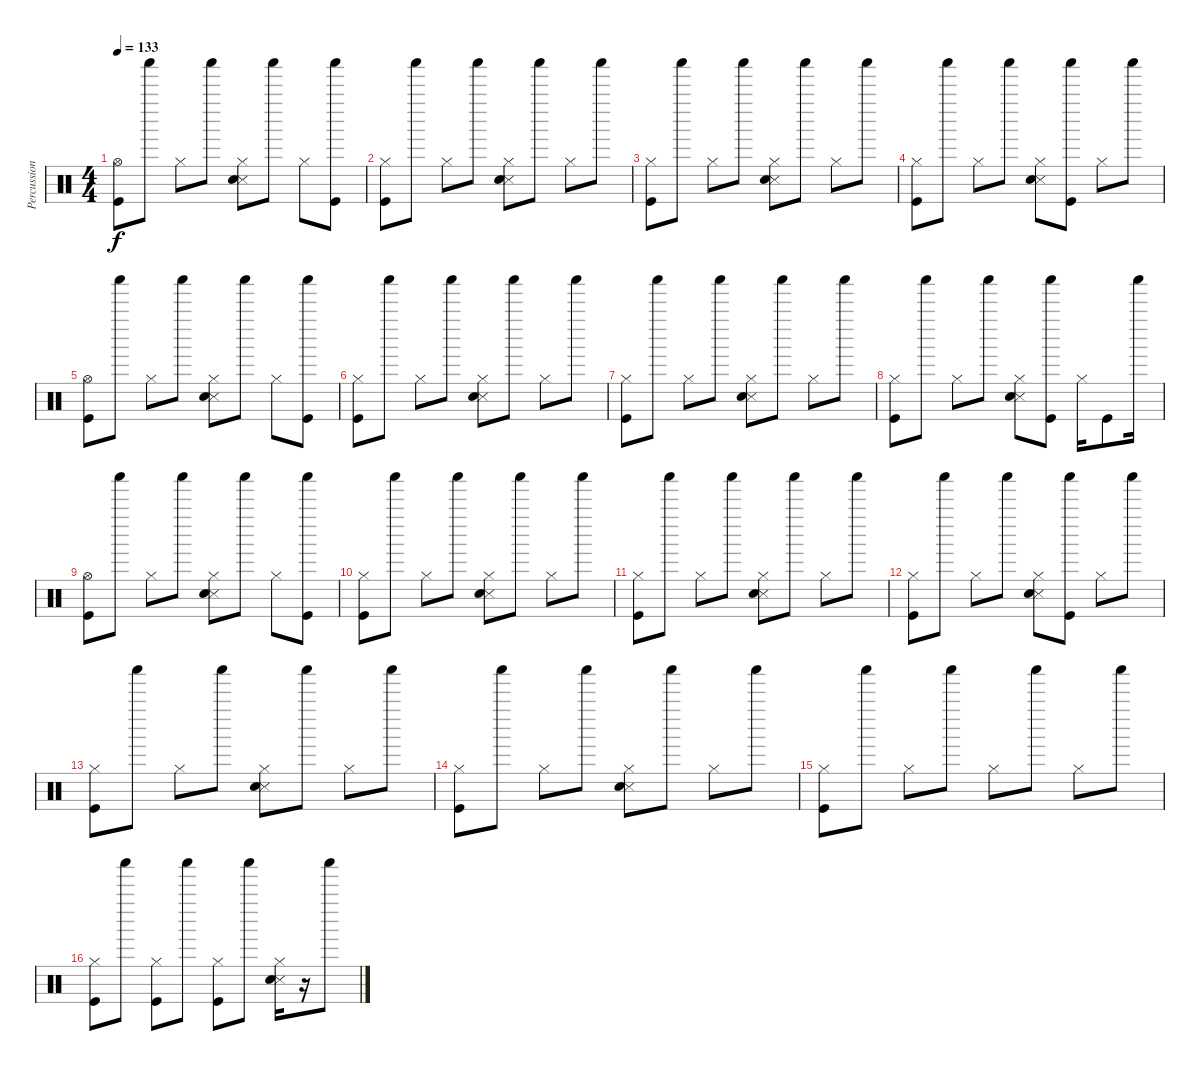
\track ("Percussion" "Percussion") {instrument percussion}
\staff {score}
\articulation defaults
\ts (4 4)
\tempo 133
\clef neutral
\ks c
("Hi-Hat (open)" "Kick (hit)").8{dy f} "Shaker (hit)".8 "Hi-Hat (closed)".8 "Shaker (hit)".8 ("Hi-Hat (closed)" "Snare (side stick) 3" "Electric Snare (hit)").8 "Shaker (hit)".8 "Hi-Hat (closed)".8 ("Shaker (hit)" "Kick (hit)").8 |
("Hi-Hat (closed)" "Kick (hit)").8 "Shaker (hit)".8 "Hi-Hat (closed)".8 "Shaker (hit)".8 ("Hi-Hat (closed)" "Snare (side stick) 3" "Electric Snare (hit)").8 "Shaker (hit)".8 "Hi-Hat (closed)".8 "Shaker (hit)".8 |
("Hi-Hat (closed)" "Kick (hit)").8 "Shaker (hit)".8 "Hi-Hat (closed)".8 "Shaker (hit)".8 ("Hi-Hat (closed)" "Snare (side stick) 3" "Electric Snare (hit)").8 "Shaker (hit)".8 "Hi-Hat (closed)".8 "Shaker (hit)".8 |
("Hi-Hat (closed)" "Kick (hit)").8 "Shaker (hit)".8 "Hi-Hat (closed)".8 "Shaker (hit)".8 ("Hi-Hat (closed)" "Snare (side stick) 3" "Electric Snare (hit)").8 ("Shaker (hit)" "Kick (hit)").8 "Hi-Hat (closed)".8 "Shaker (hit)".8 |
("Hi-Hat (open)" "Kick (hit)").8 "Shaker (hit)".8 "Hi-Hat (closed)".8 "Shaker (hit)".8 ("Hi-Hat (closed)" "Snare (side stick) 3" "Electric Snare (hit)").8 "Shaker (hit)".8 "Hi-Hat (closed)".8 ("Shaker (hit)" "Kick (hit)").8 |
("Hi-Hat (closed)" "Kick (hit)").8 "Shaker (hit)".8 "Hi-Hat (closed)".8 "Shaker (hit)".8 ("Hi-Hat (closed)" "Snare (side stick) 3" "Electric Snare (hit)").8 "Shaker (hit)".8 "Hi-Hat (closed)".8 "Shaker (hit)".8 |
("Hi-Hat (closed)" "Kick (hit)").8 "Shaker (hit)".8 "Hi-Hat (closed)".8 "Shaker (hit)".8 ("Hi-Hat (closed)" "Snare (side stick) 3" "Electric Snare (hit)").8 "Shaker (hit)".8 "Hi-Hat (closed)".8 "Shaker (hit)".8 |
("Hi-Hat (closed)" "Kick (hit)").8 "Shaker (hit)".8 "Hi-Hat (closed)".8 "Shaker (hit)".8 ("Hi-Hat (closed)" "Snare (side stick) 3" "Electric Snare (hit)").8 ("Shaker (hit)" "Kick (hit)").8 "Hi-Hat (closed)".16 "Kick (hit)".8 "Shaker (hit)".16 |
("Hi-Hat (open)" "Kick (hit)").8 "Shaker (hit)".8 "Hi-Hat (closed)".8 "Shaker (hit)".8 ("Hi-Hat (closed)" "Snare (side stick) 3" "Electric Snare (hit)").8 "Shaker (hit)".8 "Hi-Hat (closed)".8 ("Shaker (hit)" "Kick (hit)").8 |
("Hi-Hat (closed)" "Kick (hit)").8 "Shaker (hit)".8 "Hi-Hat (closed)".8 "Shaker (hit)".8 ("Hi-Hat (closed)" "Snare (side stick) 3" "Electric Snare (hit)").8 "Shaker (hit)".8 "Hi-Hat (closed)".8 "Shaker (hit)".8 |
("Hi-Hat (closed)" "Kick (hit)").8 "Shaker (hit)".8 "Hi-Hat (closed)".8 "Shaker (hit)".8 ("Hi-Hat (closed)" "Snare (side stick) 3" "Electric Snare (hit)").8 "Shaker (hit)".8 "Hi-Hat (closed)".8 "Shaker (hit)".8 |
("Hi-Hat (closed)" "Kick (hit)").8 "Shaker (hit)".8 "Hi-Hat (closed)".8 "Shaker (hit)".8 ("Hi-Hat (closed)" "Snare (side stick) 3" "Electric Snare (hit)").8 ("Shaker (hit)" "Kick (hit)").8 "Hi-Hat (closed)".8 "Shaker (hit)".8 |
("Hi-Hat (closed)" "Kick (hit)").8 "Shaker (hit)".8 "Hi-Hat (closed)".8 "Shaker (hit)".8 ("Hi-Hat (closed)" "Snare (side stick) 3" "Electric Snare (hit)").8 "Shaker (hit)".8 "Hi-Hat (closed)".8 "Shaker (hit)".8 |
("Hi-Hat (closed)" "Kick (hit)").8 "Shaker (hit)".8 "Hi-Hat (closed)".8 "Shaker (hit)".8 ("Hi-Hat (closed)" "Snare (side stick) 3" "Electric Snare (hit)").8 "Shaker (hit)".8 "Hi-Hat (closed)".8 "Shaker (hit)".8 |
("Hi-Hat (closed)" "Kick (hit)").8 "Shaker (hit)".8 "Hi-Hat (closed)".8 "Shaker (hit)".8 "Hi-Hat (closed)".8 "Shaker (hit)".8 "Hi-Hat (closed)".8 "Shaker (hit)".8 |
("Hi-Hat (closed)" "Kick (hit)").8 "Shaker (hit)".8 ("Hi-Hat (closed)" "Kick (hit)").8 "Shaker (hit)".8 ("Hi-Hat (closed)" "Kick (hit)").8 "Shaker (hit)".8 ("Hi-Hat (closed)" "Snare (side stick) 3" "Electric Snare (hit)").16 r.16 "Shaker (hit)".8
